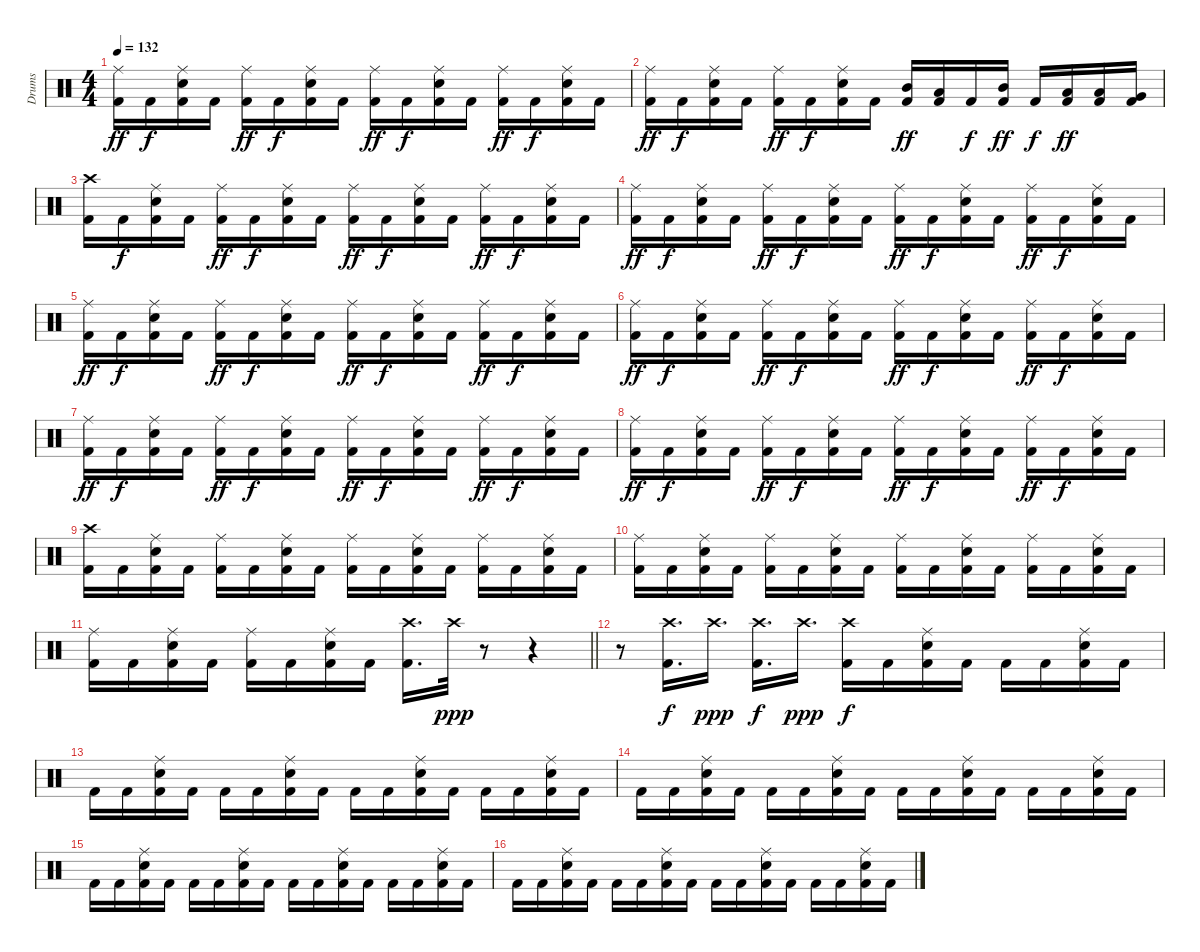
\track ("Drums" "Drums") {instrument percussion}
\staff {score}
\articulation defaults
\ts (4 4)
\tempo 132
\clef neutral
\ks c
("Ride (middle)" "Kick (hit) 2").16{dy ff} "Kick (hit) 2".16{dy f} ("Ride (middle)" "Snare (hit) 2" "Kick (hit) 2").16 "Kick (hit) 2".16 ("Ride (middle)" "Kick (hit) 2").16{dy ff} "Kick (hit) 2".16{dy f} ("Ride (middle)" "Snare (hit) 2" "Kick (hit) 2").16 "Kick (hit) 2".16 ("Ride (middle)" "Kick (hit) 2").16{dy ff} "Kick (hit) 2".16{dy f} ("Ride (middle)" "Snare (hit) 2" "Kick (hit) 2").16 "Kick (hit) 2".16 ("Ride (middle)" "Kick (hit) 2").16{dy ff} "Kick (hit) 2".16{dy f} ("Ride (middle)" "Snare (hit) 2" "Kick (hit) 2").16 "Kick (hit) 2".16 |
("Ride (middle)" "Kick (hit) 2").16{dy ff} "Kick (hit) 2".16{dy f} ("Ride (middle)" "Snare (hit) 2" "Kick (hit) 2").16 "Kick (hit) 2".16 ("Ride (middle)" "Kick (hit) 2").16{dy ff} "Kick (hit) 2".16{dy f} ("Ride (middle)" "Snare (hit) 2" "Kick (hit) 2").16 "Kick (hit) 2".16 ("Mid Tom (hit)" "Kick (hit) 2").16{dy ff} ("Low Tom (hit)" "Kick (hit) 2").16 "Kick (hit) 2".16{dy f} ("Mid Tom (hit)" "Kick (hit) 2").16{dy ff} "Kick (hit) 2".16{dy f} ("Low Tom (hit)" "Kick (hit) 2").16{dy ff} ("Low Tom (hit)" "Kick (hit) 2").16 ("Very Low Tom (hit)" "Kick (hit) 2").16 |
("Crash high (hit)" "Kick (hit) 2").16 "Kick (hit) 2".16{dy f} ("Ride (middle)" "Snare (hit) 2" "Kick (hit) 2").16 "Kick (hit) 2".16 ("Ride (middle)" "Kick (hit) 2").16{dy ff} "Kick (hit) 2".16{dy f} ("Ride (middle)" "Snare (hit) 2" "Kick (hit) 2").16 "Kick (hit) 2".16 ("Ride (middle)" "Kick (hit) 2").16{dy ff} "Kick (hit) 2".16{dy f} ("Ride (middle)" "Snare (hit) 2" "Kick (hit) 2").16 "Kick (hit) 2".16 ("Ride (middle)" "Kick (hit) 2").16{dy ff} "Kick (hit) 2".16{dy f} ("Ride (middle)" "Snare (hit) 2" "Kick (hit) 2").16 "Kick (hit) 2".16 |
("Ride (middle)" "Kick (hit) 2").16{dy ff} "Kick (hit) 2".16{dy f} ("Ride (middle)" "Snare (hit) 2" "Kick (hit) 2").16 "Kick (hit) 2".16 ("Ride (middle)" "Kick (hit) 2").16{dy ff} "Kick (hit) 2".16{dy f} ("Ride (middle)" "Snare (hit) 2" "Kick (hit) 2").16 "Kick (hit) 2".16 ("Ride (middle)" "Kick (hit) 2").16{dy ff} "Kick (hit) 2".16{dy f} ("Ride (middle)" "Snare (hit) 2" "Kick (hit) 2").16 "Kick (hit) 2".16 ("Ride (middle)" "Kick (hit) 2").16{dy ff} "Kick (hit) 2".16{dy f} ("Ride (middle)" "Snare (hit) 2" "Kick (hit) 2").16 "Kick (hit) 2".16 |
("Ride (middle)" "Kick (hit) 2").16{dy ff} "Kick (hit) 2".16{dy f} ("Ride (middle)" "Snare (hit) 2" "Kick (hit) 2").16 "Kick (hit) 2".16 ("Ride (middle)" "Kick (hit) 2").16{dy ff} "Kick (hit) 2".16{dy f} ("Ride (middle)" "Snare (hit) 2" "Kick (hit) 2").16 "Kick (hit) 2".16 ("Ride (middle)" "Kick (hit) 2").16{dy ff} "Kick (hit) 2".16{dy f} ("Ride (middle)" "Snare (hit) 2" "Kick (hit) 2").16 "Kick (hit) 2".16 ("Ride (middle)" "Kick (hit) 2").16{dy ff} "Kick (hit) 2".16{dy f} ("Ride (middle)" "Snare (hit) 2" "Kick (hit) 2").16 "Kick (hit) 2".16 |
("Ride (middle)" "Kick (hit) 2").16{dy ff} "Kick (hit) 2".16{dy f} ("Ride (middle)" "Snare (hit) 2" "Kick (hit) 2").16 "Kick (hit) 2".16 ("Ride (middle)" "Kick (hit) 2").16{dy ff} "Kick (hit) 2".16{dy f} ("Ride (middle)" "Snare (hit) 2" "Kick (hit) 2").16 "Kick (hit) 2".16 ("Ride (middle)" "Kick (hit) 2").16{dy ff} "Kick (hit) 2".16{dy f} ("Ride (middle)" "Snare (hit) 2" "Kick (hit) 2").16 "Kick (hit) 2".16 ("Ride (middle)" "Kick (hit) 2").16{dy ff} "Kick (hit) 2".16{dy f} ("Ride (middle)" "Snare (hit) 2" "Kick (hit) 2").16 "Kick (hit) 2".16 |
("Ride (middle)" "Kick (hit) 2").16{dy ff} "Kick (hit) 2".16{dy f} ("Ride (middle)" "Snare (hit) 2" "Kick (hit) 2").16 "Kick (hit) 2".16 ("Ride (middle)" "Kick (hit) 2").16{dy ff} "Kick (hit) 2".16{dy f} ("Ride (middle)" "Snare (hit) 2" "Kick (hit) 2").16 "Kick (hit) 2".16 ("Ride (middle)" "Kick (hit) 2").16{dy ff} "Kick (hit) 2".16{dy f} ("Ride (middle)" "Snare (hit) 2" "Kick (hit) 2").16 "Kick (hit) 2".16 ("Ride (middle)" "Kick (hit) 2").16{dy ff} "Kick (hit) 2".16{dy f} ("Ride (middle)" "Snare (hit) 2" "Kick (hit) 2").16 "Kick (hit) 2".16 |
("Ride (middle)" "Kick (hit) 2").16{dy ff} "Kick (hit) 2".16{dy f} ("Ride (middle)" "Snare (hit) 2" "Kick (hit) 2").16 "Kick (hit) 2".16 ("Ride (middle)" "Kick (hit) 2").16{dy ff} "Kick (hit) 2".16{dy f} ("Ride (middle)" "Snare (hit) 2" "Kick (hit) 2").16 "Kick (hit) 2".16 ("Ride (middle)" "Kick (hit) 2").16{dy ff} "Kick (hit) 2".16{dy f} ("Ride (middle)" "Snare (hit) 2" "Kick (hit) 2").16 "Kick (hit) 2".16 ("Ride (middle)" "Kick (hit) 2").16{dy ff} "Kick (hit) 2".16{dy f} ("Ride (middle)" "Snare (hit) 2" "Kick (hit) 2").16 "Kick (hit) 2".16 |
("Crash high (hit)" "Kick (hit) 2").16 "Kick (hit) 2".16 ("Ride (middle)" "Snare (hit) 2" "Kick (hit) 2").16 "Kick (hit) 2".16 ("Ride (middle)" "Kick (hit) 2").16 "Kick (hit) 2".16 ("Ride (middle)" "Snare (hit) 2" "Kick (hit) 2").16 "Kick (hit) 2".16 ("Ride (middle)" "Kick (hit) 2").16 "Kick (hit) 2".16 ("Ride (middle)" "Snare (hit) 2" "Kick (hit) 2").16 "Kick (hit) 2".16 ("Ride (middle)" "Kick (hit) 2").16 "Kick (hit) 2".16 ("Ride (middle)" "Snare (hit) 2" "Kick (hit) 2").16 "Kick (hit) 2".16 |
("Ride (middle)" "Kick (hit) 2").16 "Kick (hit) 2".16 ("Ride (middle)" "Snare (hit) 2" "Kick (hit) 2").16 "Kick (hit) 2".16 ("Ride (middle)" "Kick (hit) 2").16 "Kick (hit) 2".16 ("Ride (middle)" "Snare (hit) 2" "Kick (hit) 2").16 "Kick (hit) 2".16 ("Ride (middle)" "Kick (hit) 2").16 "Kick (hit) 2".16 ("Ride (middle)" "Snare (hit) 2" "Kick (hit) 2").16 "Kick (hit) 2".16 ("Ride (middle)" "Kick (hit) 2").16 "Kick (hit) 2".16 ("Ride (middle)" "Snare (hit) 2" "Kick (hit) 2").16 "Kick (hit) 2".16 |
\barLineRight lightlight
("Ride (middle)" "Kick (hit) 2").16 "Kick (hit) 2".16 ("Ride (middle)" "Snare (hit) 2" "Kick (hit) 2").16 "Kick (hit) 2".16 ("Ride (middle)" "Kick (hit) 2").16 "Kick (hit) 2".16 ("Ride (middle)" "Snare (hit) 2" "Kick (hit) 2").16 "Kick (hit) 2".16 ("Crash high (hit)" "Kick (hit) 2").16{d} "Crash high (hit)".32{dy ppp} r.8 r.4 |
r.8 ("Crash high (hit)" "Kick (hit) 2").16{d dy f} "Crash high (hit)".16{d dy ppp} ("Crash high (hit)" "Kick (hit) 2").16{d dy f} "Crash high (hit)".16{d dy ppp} ("Crash high (hit)" "Kick (hit) 2").16{dy f} "Kick (hit) 2".16 ("Ride (middle)" "Snare (hit) 2" "Kick (hit) 2").16 "Kick (hit) 2".16 "Kick (hit) 2".16 "Kick (hit) 2".16 ("Ride (middle)" "Snare (hit) 2" "Kick (hit) 2").16 "Kick (hit) 2".16 |
"Kick (hit) 2".16 "Kick (hit) 2".16 ("Ride (middle)" "Snare (hit) 2" "Kick (hit) 2").16 "Kick (hit) 2".16 "Kick (hit) 2".16 "Kick (hit) 2".16 ("Ride (middle)" "Snare (hit) 2" "Kick (hit) 2").16 "Kick (hit) 2".16 "Kick (hit) 2".16 "Kick (hit) 2".16 ("Ride (middle)" "Snare (hit) 2" "Kick (hit) 2").16 "Kick (hit) 2".16 "Kick (hit) 2".16 "Kick (hit) 2".16 ("Ride (middle)" "Snare (hit) 2" "Kick (hit) 2").16 "Kick (hit) 2".16 |
"Kick (hit) 2".16 "Kick (hit) 2".16 ("Ride (middle)" "Snare (hit) 2" "Kick (hit) 2").16 "Kick (hit) 2".16 "Kick (hit) 2".16 "Kick (hit) 2".16 ("Ride (middle)" "Snare (hit) 2" "Kick (hit) 2").16 "Kick (hit) 2".16 "Kick (hit) 2".16 "Kick (hit) 2".16 ("Ride (middle)" "Snare (hit) 2" "Kick (hit) 2").16 "Kick (hit) 2".16 "Kick (hit) 2".16 "Kick (hit) 2".16 ("Ride (middle)" "Snare (hit) 2" "Kick (hit) 2").16 "Kick (hit) 2".16 |
"Kick (hit) 2".16 "Kick (hit) 2".16 ("Ride (middle)" "Snare (hit) 2" "Kick (hit) 2").16 "Kick (hit) 2".16 "Kick (hit) 2".16 "Kick (hit) 2".16 ("Ride (middle)" "Snare (hit) 2" "Kick (hit) 2").16 "Kick (hit) 2".16 "Kick (hit) 2".16 "Kick (hit) 2".16 ("Ride (middle)" "Snare (hit) 2" "Kick (hit) 2").16 "Kick (hit) 2".16 "Kick (hit) 2".16 "Kick (hit) 2".16 ("Ride (middle)" "Snare (hit) 2" "Kick (hit) 2").16 "Kick (hit) 2".16 |
"Kick (hit) 2".16 "Kick (hit) 2".16 ("Ride (middle)" "Snare (hit) 2" "Kick (hit) 2").16 "Kick (hit) 2".16 "Kick (hit) 2".16 "Kick (hit) 2".16 ("Ride (middle)" "Snare (hit) 2" "Kick (hit) 2").16 "Kick (hit) 2".16 "Kick (hit) 2".16 "Kick (hit) 2".16 ("Ride (middle)" "Snare (hit) 2" "Kick (hit) 2").16 "Kick (hit) 2".16 "Kick (hit) 2".16 "Kick (hit) 2".16 ("Ride (middle)" "Snare (hit) 2" "Kick (hit) 2").16 "Kick (hit) 2".16
